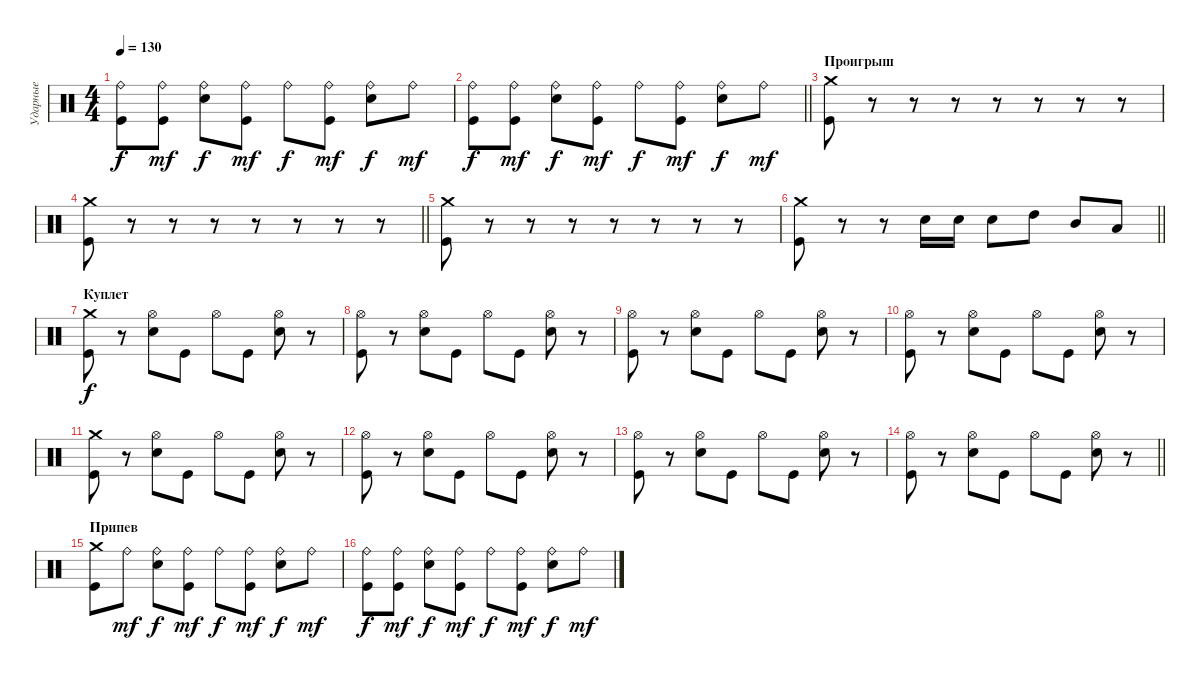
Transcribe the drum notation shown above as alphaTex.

\track ("Ударные" "Ударные") {instrument percussion}
\staff {score}
\articulation defaults
\ts (4 4)
\tempo 130
\clef neutral
\ks c
("Ride (bell)" "Kick (hit)").8{dy f} ("Ride (bell)" "Kick (hit)").8{dy mf} ("Ride (bell)" "Electric Snare (hit)").8{dy f} ("Ride (bell)" "Kick (hit)").8{dy mf} "Ride (bell)".8{dy f} ("Ride (bell)" "Kick (hit)").8{dy mf} ("Ride (bell)" "Electric Snare (hit)").8{dy f} "Ride (bell)".8{dy mf} |
\barLineRight lightlight
("Ride (bell)" "Kick (hit)").8{dy f} ("Ride (bell)" "Kick (hit)").8{dy mf} ("Ride (bell)" "Electric Snare (hit)").8{dy f} ("Ride (bell)" "Kick (hit)").8{dy mf} "Ride (bell)".8{dy f} ("Ride (bell)" "Kick (hit)").8{dy mf} ("Ride (bell)" "Electric Snare (hit)").8{dy f} "Ride (bell)".8{dy mf} |
\section ("" "Проигрыш")
("Crash medium (hit)" "Kick (hit)").8 r.8 r.8 r.8 r.8 r.8 r.8 r.8 |
\barLineRight lightlight
("Crash medium (hit)" "Kick (hit)").8 r.8 r.8 r.8 r.8 r.8 r.8 r.8 |
("Crash medium (hit)" "Kick (hit)").8 r.8 r.8 r.8 r.8 r.8 r.8 r.8 |
\barLineRight lightlight
("Crash medium (hit)" "Kick (hit)").8 r.8 r.8 "Electric Snare (hit)".16 "Electric Snare (hit)".16 "Electric Snare (hit)".8 "High Tom (hit)".8 "Mid Tom (hit)".8 "Low Tom (hit)".8 |
\section ("" "Куплет")
("Crash medium (hit)" "Kick (hit)").8{dy f} r.8 ("Hi-Hat (open)" "Electric Snare (hit)").8 "Kick (hit)".8 "Hi-Hat (open)".8 "Kick (hit)".8 ("Hi-Hat (open)" "Electric Snare (hit)").8 r.8 |
("Hi-Hat (open)" "Kick (hit)").8 r.8 ("Hi-Hat (open)" "Electric Snare (hit)").8 "Kick (hit)".8 "Hi-Hat (open)".8 "Kick (hit)".8 ("Hi-Hat (open)" "Electric Snare (hit)").8 r.8 |
("Hi-Hat (open)" "Kick (hit)").8 r.8 ("Hi-Hat (open)" "Electric Snare (hit)").8 "Kick (hit)".8 "Hi-Hat (open)".8 "Kick (hit)".8 ("Hi-Hat (open)" "Electric Snare (hit)").8 r.8 |
("Hi-Hat (open)" "Kick (hit)").8 r.8 ("Hi-Hat (open)" "Electric Snare (hit)").8 "Kick (hit)".8 "Hi-Hat (open)".8 "Kick (hit)".8 ("Hi-Hat (open)" "Electric Snare (hit)").8 r.8 |
("Crash medium (hit)" "Kick (hit)").8 r.8 ("Hi-Hat (open)" "Electric Snare (hit)").8 "Kick (hit)".8 "Hi-Hat (open)".8 "Kick (hit)".8 ("Hi-Hat (open)" "Electric Snare (hit)").8 r.8 |
("Hi-Hat (open)" "Kick (hit)").8 r.8 ("Hi-Hat (open)" "Electric Snare (hit)").8 "Kick (hit)".8 "Hi-Hat (open)".8 "Kick (hit)".8 ("Hi-Hat (open)" "Electric Snare (hit)").8 r.8 |
("Hi-Hat (open)" "Kick (hit)").8 r.8 ("Hi-Hat (open)" "Electric Snare (hit)").8 "Kick (hit)".8 "Hi-Hat (open)".8 "Kick (hit)".8 ("Hi-Hat (open)" "Electric Snare (hit)").8 r.8 |
\barLineRight lightlight
("Hi-Hat (open)" "Kick (hit)").8 r.8 ("Hi-Hat (open)" "Electric Snare (hit)").8 "Kick (hit)".8 "Hi-Hat (open)".8 "Kick (hit)".8 ("Hi-Hat (open)" "Electric Snare (hit)").8 r.8 |
\section ("" "Припев")
("Crash medium (hit)" "Kick (hit)").8 "Ride (bell)".8{dy mf} ("Ride (bell)" "Electric Snare (hit)").8{dy f} ("Ride (bell)" "Kick (hit)").8{dy mf} "Ride (bell)".8{dy f} ("Ride (bell)" "Kick (hit)").8{dy mf} ("Ride (bell)" "Electric Snare (hit)").8{dy f} "Ride (bell)".8{dy mf} |
("Ride (bell)" "Kick (hit)").8{dy f} ("Ride (bell)" "Kick (hit)").8{dy mf} ("Ride (bell)" "Electric Snare (hit)").8{dy f} ("Ride (bell)" "Kick (hit)").8{dy mf} "Ride (bell)".8{dy f} ("Ride (bell)" "Kick (hit)").8{dy mf} ("Ride (bell)" "Electric Snare (hit)").8{dy f} "Ride (bell)".8{dy mf}
